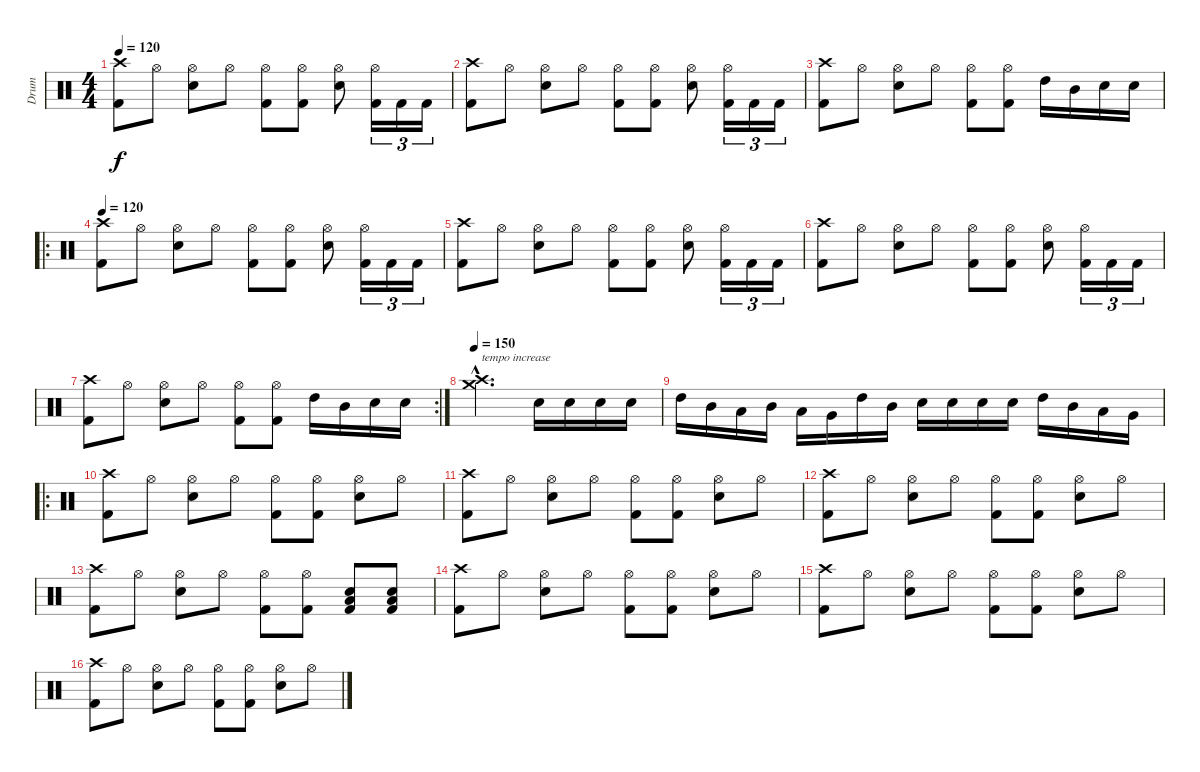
\track ("Drum" "Drum") {instrument percussion}
\staff {score}
\articulation defaults
\ts (4 4)
\tempo 120
\clef neutral
\ks c
("Crash high (hit)" "Kick (hit) 2").8{dy f} "Hi-Hat (open)".8 ("Hi-Hat (open)" "Electric Snare (hit)").8 "Hi-Hat (open)".8 ("Hi-Hat (open)" "Kick (hit) 2").8 ("Hi-Hat (open)" "Kick (hit) 2").8 ("Hi-Hat (open)" "Electric Snare (hit)").8 ("Hi-Hat (open)" "Kick (hit) 2").16{tu (3 2)} "Kick (hit) 2".16{tu (3 2)} "Kick (hit) 2".16{tu (3 2)} |
("Crash high (hit)" "Kick (hit) 2").8 "Hi-Hat (open)".8 ("Hi-Hat (open)" "Electric Snare (hit)").8 "Hi-Hat (open)".8 ("Hi-Hat (open)" "Kick (hit) 2").8 ("Hi-Hat (open)" "Kick (hit) 2").8 ("Hi-Hat (open)" "Electric Snare (hit)").8 ("Hi-Hat (open)" "Kick (hit) 2").16{tu (3 2)} "Kick (hit) 2".16{tu (3 2)} "Kick (hit) 2".16{tu (3 2)} |
("Crash high (hit)" "Kick (hit) 2").8 "Hi-Hat (open)".8 ("Hi-Hat (open)" "Electric Snare (hit)").8 "Hi-Hat (open)".8 ("Hi-Hat (open)" "Kick (hit) 2").8 ("Hi-Hat (open)" "Kick (hit) 2").8 "High Tom (hit)".16 "Mid Tom (hit)".16 "Electric Snare (hit)".16 "Electric Snare (hit)".16 |
\ro
\tempo 120
("Crash high (hit)" "Kick (hit) 2").8 "Hi-Hat (open)".8 ("Hi-Hat (open)" "Electric Snare (hit)").8 "Hi-Hat (open)".8 ("Hi-Hat (open)" "Kick (hit) 2").8 ("Hi-Hat (open)" "Kick (hit) 2").8 ("Hi-Hat (open)" "Electric Snare (hit)").8 ("Hi-Hat (open)" "Kick (hit) 2").16{tu (3 2)} "Kick (hit) 2".16{tu (3 2)} "Kick (hit) 2".16{tu (3 2)} |
("Crash high (hit)" "Kick (hit) 2").8 "Hi-Hat (open)".8 ("Hi-Hat (open)" "Electric Snare (hit)").8 "Hi-Hat (open)".8 ("Hi-Hat (open)" "Kick (hit) 2").8 ("Hi-Hat (open)" "Kick (hit) 2").8 ("Hi-Hat (open)" "Electric Snare (hit)").8 ("Hi-Hat (open)" "Kick (hit) 2").16{tu (3 2)} "Kick (hit) 2".16{tu (3 2)} "Kick (hit) 2".16{tu (3 2)} |
("Crash high (hit)" "Kick (hit) 2").8 "Hi-Hat (open)".8 ("Hi-Hat (open)" "Electric Snare (hit)").8 "Hi-Hat (open)".8 ("Hi-Hat (open)" "Kick (hit) 2").8 ("Hi-Hat (open)" "Kick (hit) 2").8 ("Hi-Hat (open)" "Electric Snare (hit)").8 ("Hi-Hat (open)" "Kick (hit) 2").16{tu (3 2)} "Kick (hit) 2".16{tu (3 2)} "Kick (hit) 2".16{tu (3 2)} |
\rc 2
("Crash high (hit)" "Kick (hit) 2").8 "Hi-Hat (open)".8 ("Hi-Hat (open)" "Electric Snare (hit)").8 "Hi-Hat (open)".8 ("Hi-Hat (open)" "Kick (hit) 2").8 ("Hi-Hat (open)" "Kick (hit) 2").8 "High Tom (hit)".16 "Mid Tom (hit)".16 "Electric Snare (hit)".16 "Electric Snare (hit)".16 |
\tempo 150
("Crash high (hit)"{hac} "Crash medium (hit)"{hac}).2{d txt "tempo increase"} "Electric Snare (hit)".16{volume 10} "Electric Snare (hit)".16{volume 12} "Electric Snare (hit)".16{volume 13} "Electric Snare (hit)".16{volume 16} |
"High Tom (hit)".16 "Mid Tom (hit)".16 "Low Tom (hit)".16 "Mid Tom (hit)".16 "Low Tom (hit)".16 "Very Low Tom (hit)".16 "High Tom (hit)".16 "Mid Tom (hit)".16 "Electric Snare (hit)".16 "Electric Snare (hit)".16 "Electric Snare (hit)".16 "Electric Snare (hit)".16 "High Tom (hit)".16{volume 10} "Mid Tom (hit)".16{volume 11} "Low Tom (hit)".16{volume 12} "Very Low Tom (hit)".16{volume 15} |
\ro
("Crash high (hit)" "Kick (hit) 2").8 "Hi-Hat (open)".8 ("Hi-Hat (open)" "Electric Snare (hit)").8 "Hi-Hat (open)".8 ("Hi-Hat (open)" "Kick (hit) 2").8 ("Hi-Hat (open)" "Kick (hit) 2").8 ("Hi-Hat (open)" "Electric Snare (hit)").8 "Hi-Hat (open)".8 |
("Crash high (hit)" "Kick (hit) 2").8 "Hi-Hat (open)".8 ("Hi-Hat (open)" "Electric Snare (hit)").8 "Hi-Hat (open)".8 ("Hi-Hat (open)" "Kick (hit) 2").8 ("Hi-Hat (open)" "Kick (hit) 2").8 ("Hi-Hat (open)" "Electric Snare (hit)").8 "Hi-Hat (open)".8 |
("Crash high (hit)" "Kick (hit) 2").8 "Hi-Hat (open)".8 ("Hi-Hat (open)" "Electric Snare (hit)").8 "Hi-Hat (open)".8 ("Hi-Hat (open)" "Kick (hit) 2").8 ("Hi-Hat (open)" "Kick (hit) 2").8 ("Hi-Hat (open)" "Electric Snare (hit)").8 "Hi-Hat (open)".8 |
("Crash high (hit)" "Kick (hit) 2").8 "Hi-Hat (open)".8 ("Hi-Hat (open)" "Electric Snare (hit)").8 "Hi-Hat (open)".8 ("Hi-Hat (open)" "Kick (hit) 2").8 ("Hi-Hat (open)" "Kick (hit) 2").8 ("Low Floor Tom (hit)" "Electric Snare (hit)" "Kick (hit) 2").8{volume 16} ("Low Floor Tom (hit)" "Electric Snare (hit)" "Kick (hit) 2").8{volume 16} |
("Crash high (hit)" "Kick (hit) 2").8 "Hi-Hat (open)".8 ("Hi-Hat (open)" "Electric Snare (hit)").8 "Hi-Hat (open)".8 ("Hi-Hat (open)" "Kick (hit) 2").8 ("Hi-Hat (open)" "Kick (hit) 2").8 ("Hi-Hat (open)" "Electric Snare (hit)").8 "Hi-Hat (open)".8 |
("Crash high (hit)" "Kick (hit) 2").8 "Hi-Hat (open)".8 ("Hi-Hat (open)" "Electric Snare (hit)").8 "Hi-Hat (open)".8 ("Hi-Hat (open)" "Kick (hit) 2").8 ("Hi-Hat (open)" "Kick (hit) 2").8 ("Hi-Hat (open)" "Electric Snare (hit)").8 "Hi-Hat (open)".8 |
("Crash high (hit)" "Kick (hit) 2").8 "Hi-Hat (open)".8 ("Hi-Hat (open)" "Electric Snare (hit)").8 "Hi-Hat (open)".8 ("Hi-Hat (open)" "Kick (hit) 2").8 ("Hi-Hat (open)" "Kick (hit) 2").8 ("Hi-Hat (open)" "Electric Snare (hit)").8 "Hi-Hat (open)".8
